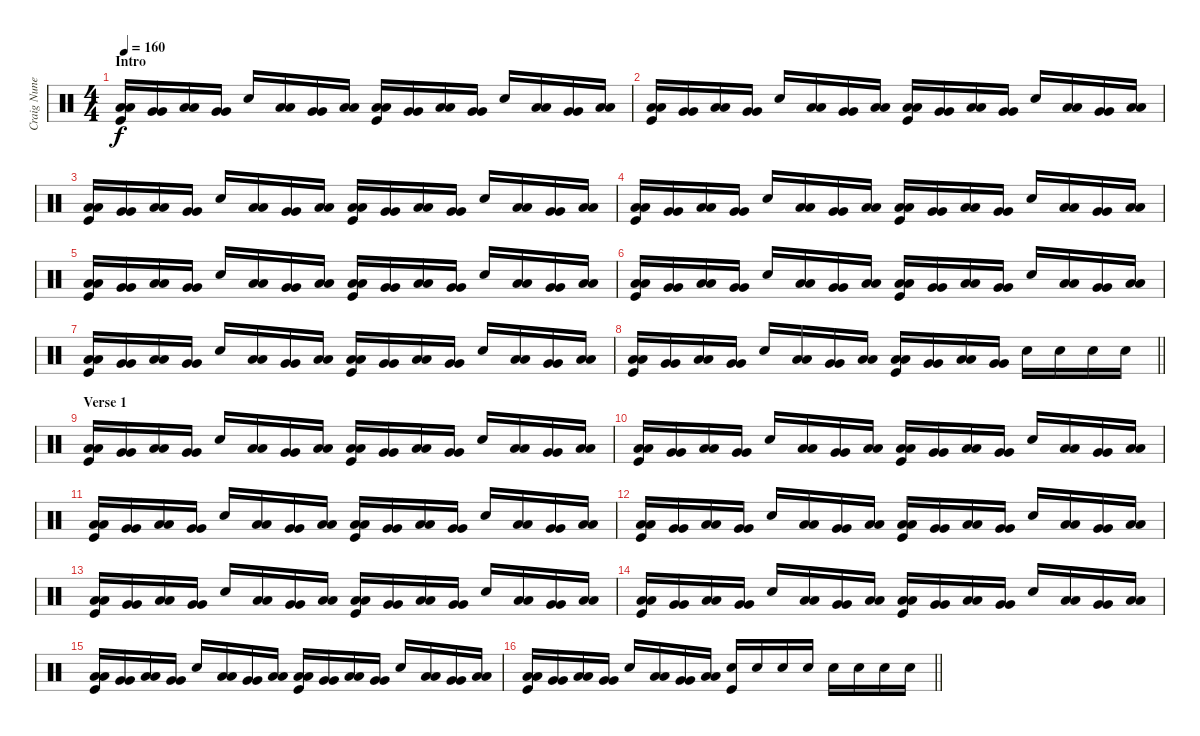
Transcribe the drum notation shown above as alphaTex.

\track ("Craig Nunenmacher" "Craig Nune") {instrument percussion}
\staff {score}
\articulation defaults
\ts (4 4)
\section ("" "Intro")
\tempo 160
\clef neutral
\ks c
("Low Tom (hit)" "Low Tom (hit)" "Kick (hit)").16{dy f} ("Very Low Tom (hit)" "Very Low Tom (hit)").16 ("Low Tom (hit)" "Low Tom (hit)").16 ("Very Low Tom (hit)" "Very Low Tom (hit)").16 "Snare (hit) 2".16 ("Low Tom (hit)" "Low Tom (hit)").16 ("Very Low Tom (hit)" "Very Low Tom (hit)").16 ("Low Tom (hit)" "Low Tom (hit)").16 ("Low Tom (hit)" "Low Tom (hit)" "Kick (hit)").16 ("Very Low Tom (hit)" "Very Low Tom (hit)").16 ("Low Tom (hit)" "Low Tom (hit)").16 ("Very Low Tom (hit)" "Very Low Tom (hit)").16 "Snare (hit) 2".16 ("Low Tom (hit)" "Low Tom (hit)").16 ("Very Low Tom (hit)" "Very Low Tom (hit)").16 ("Low Tom (hit)" "Low Tom (hit)").16 |
("Low Tom (hit)" "Low Tom (hit)" "Kick (hit)").16 ("Very Low Tom (hit)" "Very Low Tom (hit)").16 ("Low Tom (hit)" "Low Tom (hit)").16 ("Very Low Tom (hit)" "Very Low Tom (hit)").16 "Snare (hit) 2".16 ("Low Tom (hit)" "Low Tom (hit)").16 ("Very Low Tom (hit)" "Very Low Tom (hit)").16 ("Low Tom (hit)" "Low Tom (hit)").16 ("Low Tom (hit)" "Low Tom (hit)" "Kick (hit)").16 ("Very Low Tom (hit)" "Very Low Tom (hit)").16 ("Low Tom (hit)" "Low Tom (hit)").16 ("Very Low Tom (hit)" "Very Low Tom (hit)").16 "Snare (hit) 2".16 ("Low Tom (hit)" "Low Tom (hit)").16 ("Very Low Tom (hit)" "Very Low Tom (hit)").16 ("Low Tom (hit)" "Low Tom (hit)").16 |
("Low Tom (hit)" "Low Tom (hit)" "Kick (hit)").16 ("Very Low Tom (hit)" "Very Low Tom (hit)").16 ("Low Tom (hit)" "Low Tom (hit)").16 ("Very Low Tom (hit)" "Very Low Tom (hit)").16 "Snare (hit) 2".16 ("Low Tom (hit)" "Low Tom (hit)").16 ("Very Low Tom (hit)" "Very Low Tom (hit)").16 ("Low Tom (hit)" "Low Tom (hit)").16 ("Low Tom (hit)" "Low Tom (hit)" "Kick (hit)").16 ("Very Low Tom (hit)" "Very Low Tom (hit)").16 ("Low Tom (hit)" "Low Tom (hit)").16 ("Very Low Tom (hit)" "Very Low Tom (hit)").16 "Snare (hit) 2".16 ("Low Tom (hit)" "Low Tom (hit)").16 ("Very Low Tom (hit)" "Very Low Tom (hit)").16 ("Low Tom (hit)" "Low Tom (hit)").16 |
("Low Tom (hit)" "Low Tom (hit)" "Kick (hit)").16 ("Very Low Tom (hit)" "Very Low Tom (hit)").16 ("Low Tom (hit)" "Low Tom (hit)").16 ("Very Low Tom (hit)" "Very Low Tom (hit)").16 "Snare (hit) 2".16 ("Low Tom (hit)" "Low Tom (hit)").16 ("Very Low Tom (hit)" "Very Low Tom (hit)").16 ("Low Tom (hit)" "Low Tom (hit)").16 ("Low Tom (hit)" "Low Tom (hit)" "Kick (hit)").16 ("Very Low Tom (hit)" "Very Low Tom (hit)").16 ("Low Tom (hit)" "Low Tom (hit)").16 ("Very Low Tom (hit)" "Very Low Tom (hit)").16 "Snare (hit) 2".16 ("Low Tom (hit)" "Low Tom (hit)").16 ("Very Low Tom (hit)" "Very Low Tom (hit)").16 ("Low Tom (hit)" "Low Tom (hit)").16 |
("Low Tom (hit)" "Low Tom (hit)" "Kick (hit)").16 ("Very Low Tom (hit)" "Very Low Tom (hit)").16 ("Low Tom (hit)" "Low Tom (hit)").16 ("Very Low Tom (hit)" "Very Low Tom (hit)").16 "Snare (hit) 2".16 ("Low Tom (hit)" "Low Tom (hit)").16 ("Very Low Tom (hit)" "Very Low Tom (hit)").16 ("Low Tom (hit)" "Low Tom (hit)").16 ("Low Tom (hit)" "Low Tom (hit)" "Kick (hit)").16 ("Very Low Tom (hit)" "Very Low Tom (hit)").16 ("Low Tom (hit)" "Low Tom (hit)").16 ("Very Low Tom (hit)" "Very Low Tom (hit)").16 "Snare (hit) 2".16 ("Low Tom (hit)" "Low Tom (hit)").16 ("Very Low Tom (hit)" "Very Low Tom (hit)").16 ("Low Tom (hit)" "Low Tom (hit)").16 |
("Low Tom (hit)" "Low Tom (hit)" "Kick (hit)").16 ("Very Low Tom (hit)" "Very Low Tom (hit)").16 ("Low Tom (hit)" "Low Tom (hit)").16 ("Very Low Tom (hit)" "Very Low Tom (hit)").16 "Snare (hit) 2".16 ("Low Tom (hit)" "Low Tom (hit)").16 ("Very Low Tom (hit)" "Very Low Tom (hit)").16 ("Low Tom (hit)" "Low Tom (hit)").16 ("Low Tom (hit)" "Low Tom (hit)" "Kick (hit)").16 ("Very Low Tom (hit)" "Very Low Tom (hit)").16 ("Low Tom (hit)" "Low Tom (hit)").16 ("Very Low Tom (hit)" "Very Low Tom (hit)").16 "Snare (hit) 2".16 ("Low Tom (hit)" "Low Tom (hit)").16 ("Very Low Tom (hit)" "Very Low Tom (hit)").16 ("Low Tom (hit)" "Low Tom (hit)").16 |
("Low Tom (hit)" "Low Tom (hit)" "Kick (hit)").16 ("Very Low Tom (hit)" "Very Low Tom (hit)").16 ("Low Tom (hit)" "Low Tom (hit)").16 ("Very Low Tom (hit)" "Very Low Tom (hit)").16 "Snare (hit) 2".16 ("Low Tom (hit)" "Low Tom (hit)").16 ("Very Low Tom (hit)" "Very Low Tom (hit)").16 ("Low Tom (hit)" "Low Tom (hit)").16 ("Low Tom (hit)" "Low Tom (hit)" "Kick (hit)").16 ("Very Low Tom (hit)" "Very Low Tom (hit)").16 ("Low Tom (hit)" "Low Tom (hit)").16 ("Very Low Tom (hit)" "Very Low Tom (hit)").16 "Snare (hit) 2".16 ("Low Tom (hit)" "Low Tom (hit)").16 ("Very Low Tom (hit)" "Very Low Tom (hit)").16 ("Low Tom (hit)" "Low Tom (hit)").16 |
\barLineRight lightlight
("Low Tom (hit)" "Low Tom (hit)" "Kick (hit)").16 ("Very Low Tom (hit)" "Very Low Tom (hit)").16 ("Low Tom (hit)" "Low Tom (hit)").16 ("Very Low Tom (hit)" "Very Low Tom (hit)").16 "Snare (hit) 2".16 ("Low Tom (hit)" "Low Tom (hit)").16 ("Very Low Tom (hit)" "Very Low Tom (hit)").16 ("Low Tom (hit)" "Low Tom (hit)").16 ("Low Tom (hit)" "Low Tom (hit)" "Kick (hit)").16 ("Very Low Tom (hit)" "Very Low Tom (hit)").16 ("Low Tom (hit)" "Low Tom (hit)").16 ("Very Low Tom (hit)" "Very Low Tom (hit)").16 "Snare (hit) 2".16 "Snare (hit) 2".16 "Snare (hit) 2".16 "Snare (hit) 2".16 |
\section ("" "Verse 1")
("Low Tom (hit)" "Low Tom (hit)" "Kick (hit)").16 ("Very Low Tom (hit)" "Very Low Tom (hit)").16 ("Low Tom (hit)" "Low Tom (hit)").16 ("Very Low Tom (hit)" "Very Low Tom (hit)").16 "Snare (hit) 2".16 ("Low Tom (hit)" "Low Tom (hit)").16 ("Very Low Tom (hit)" "Very Low Tom (hit)").16 ("Low Tom (hit)" "Low Tom (hit)").16 ("Low Tom (hit)" "Low Tom (hit)" "Kick (hit)").16 ("Very Low Tom (hit)" "Very Low Tom (hit)").16 ("Low Tom (hit)" "Low Tom (hit)").16 ("Very Low Tom (hit)" "Very Low Tom (hit)").16 "Snare (hit) 2".16 ("Low Tom (hit)" "Low Tom (hit)").16 ("Very Low Tom (hit)" "Very Low Tom (hit)").16 ("Low Tom (hit)" "Low Tom (hit)").16 |
("Low Tom (hit)" "Low Tom (hit)" "Kick (hit)").16 ("Very Low Tom (hit)" "Very Low Tom (hit)").16 ("Low Tom (hit)" "Low Tom (hit)").16 ("Very Low Tom (hit)" "Very Low Tom (hit)").16 "Snare (hit) 2".16 ("Low Tom (hit)" "Low Tom (hit)").16 ("Very Low Tom (hit)" "Very Low Tom (hit)").16 ("Low Tom (hit)" "Low Tom (hit)").16 ("Low Tom (hit)" "Low Tom (hit)" "Kick (hit)").16 ("Very Low Tom (hit)" "Very Low Tom (hit)").16 ("Low Tom (hit)" "Low Tom (hit)").16 ("Very Low Tom (hit)" "Very Low Tom (hit)").16 "Snare (hit) 2".16 ("Low Tom (hit)" "Low Tom (hit)").16 ("Very Low Tom (hit)" "Very Low Tom (hit)").16 ("Low Tom (hit)" "Low Tom (hit)").16 |
("Low Tom (hit)" "Low Tom (hit)" "Kick (hit)").16 ("Very Low Tom (hit)" "Very Low Tom (hit)").16 ("Low Tom (hit)" "Low Tom (hit)").16 ("Very Low Tom (hit)" "Very Low Tom (hit)").16 "Snare (hit) 2".16 ("Low Tom (hit)" "Low Tom (hit)").16 ("Very Low Tom (hit)" "Very Low Tom (hit)").16 ("Low Tom (hit)" "Low Tom (hit)").16 ("Low Tom (hit)" "Low Tom (hit)" "Kick (hit)").16 ("Very Low Tom (hit)" "Very Low Tom (hit)").16 ("Low Tom (hit)" "Low Tom (hit)").16 ("Very Low Tom (hit)" "Very Low Tom (hit)").16 "Snare (hit) 2".16 ("Low Tom (hit)" "Low Tom (hit)").16 ("Very Low Tom (hit)" "Very Low Tom (hit)").16 ("Low Tom (hit)" "Low Tom (hit)").16 |
("Low Tom (hit)" "Low Tom (hit)" "Kick (hit)").16 ("Very Low Tom (hit)" "Very Low Tom (hit)").16 ("Low Tom (hit)" "Low Tom (hit)").16 ("Very Low Tom (hit)" "Very Low Tom (hit)").16 "Snare (hit) 2".16 ("Low Tom (hit)" "Low Tom (hit)").16 ("Very Low Tom (hit)" "Very Low Tom (hit)").16 ("Low Tom (hit)" "Low Tom (hit)").16 ("Low Tom (hit)" "Low Tom (hit)" "Kick (hit)").16 ("Very Low Tom (hit)" "Very Low Tom (hit)").16 ("Low Tom (hit)" "Low Tom (hit)").16 ("Very Low Tom (hit)" "Very Low Tom (hit)").16 "Snare (hit) 2".16 ("Low Tom (hit)" "Low Tom (hit)").16 ("Very Low Tom (hit)" "Very Low Tom (hit)").16 ("Low Tom (hit)" "Low Tom (hit)").16 |
("Low Tom (hit)" "Low Tom (hit)" "Kick (hit)").16 ("Very Low Tom (hit)" "Very Low Tom (hit)").16 ("Low Tom (hit)" "Low Tom (hit)").16 ("Very Low Tom (hit)" "Very Low Tom (hit)").16 "Snare (hit) 2".16 ("Low Tom (hit)" "Low Tom (hit)").16 ("Very Low Tom (hit)" "Very Low Tom (hit)").16 ("Low Tom (hit)" "Low Tom (hit)").16 ("Low Tom (hit)" "Low Tom (hit)" "Kick (hit)").16 ("Very Low Tom (hit)" "Very Low Tom (hit)").16 ("Low Tom (hit)" "Low Tom (hit)").16 ("Very Low Tom (hit)" "Very Low Tom (hit)").16 "Snare (hit) 2".16 ("Low Tom (hit)" "Low Tom (hit)").16 ("Very Low Tom (hit)" "Very Low Tom (hit)").16 ("Low Tom (hit)" "Low Tom (hit)").16 |
("Low Tom (hit)" "Low Tom (hit)" "Kick (hit)").16 ("Very Low Tom (hit)" "Very Low Tom (hit)").16 ("Low Tom (hit)" "Low Tom (hit)").16 ("Very Low Tom (hit)" "Very Low Tom (hit)").16 "Snare (hit) 2".16 ("Low Tom (hit)" "Low Tom (hit)").16 ("Very Low Tom (hit)" "Very Low Tom (hit)").16 ("Low Tom (hit)" "Low Tom (hit)").16 ("Low Tom (hit)" "Low Tom (hit)" "Kick (hit)").16 ("Very Low Tom (hit)" "Very Low Tom (hit)").16 ("Low Tom (hit)" "Low Tom (hit)").16 ("Very Low Tom (hit)" "Very Low Tom (hit)").16 "Snare (hit) 2".16 ("Low Tom (hit)" "Low Tom (hit)").16 ("Very Low Tom (hit)" "Very Low Tom (hit)").16 ("Low Tom (hit)" "Low Tom (hit)").16 |
("Low Tom (hit)" "Low Tom (hit)" "Kick (hit)").16 ("Very Low Tom (hit)" "Very Low Tom (hit)").16 ("Low Tom (hit)" "Low Tom (hit)").16 ("Very Low Tom (hit)" "Very Low Tom (hit)").16 "Snare (hit) 2".16 ("Low Tom (hit)" "Low Tom (hit)").16 ("Very Low Tom (hit)" "Very Low Tom (hit)").16 ("Low Tom (hit)" "Low Tom (hit)").16 ("Low Tom (hit)" "Low Tom (hit)" "Kick (hit)").16 ("Very Low Tom (hit)" "Very Low Tom (hit)").16 ("Low Tom (hit)" "Low Tom (hit)").16 ("Very Low Tom (hit)" "Very Low Tom (hit)").16 "Snare (hit) 2".16 ("Low Tom (hit)" "Low Tom (hit)").16 ("Very Low Tom (hit)" "Very Low Tom (hit)").16 ("Low Tom (hit)" "Low Tom (hit)").16 |
\barLineRight lightlight
("Low Tom (hit)" "Low Tom (hit)" "Kick (hit)").16 ("Very Low Tom (hit)" "Very Low Tom (hit)").16 ("Low Tom (hit)" "Low Tom (hit)").16 ("Very Low Tom (hit)" "Very Low Tom (hit)").16 "Snare (hit) 2".16 ("Low Tom (hit)" "Low Tom (hit)").16 ("Very Low Tom (hit)" "Very Low Tom (hit)").16 ("Low Tom (hit)" "Low Tom (hit)").16 ("Snare (hit) 2" "Kick (hit)").16 "Snare (hit) 2".16 "Snare (hit) 2".16 "Snare (hit) 2".16 "Snare (hit) 2".16 "Snare (hit) 2".16 "Snare (hit) 2".16 "Snare (hit) 2".16
